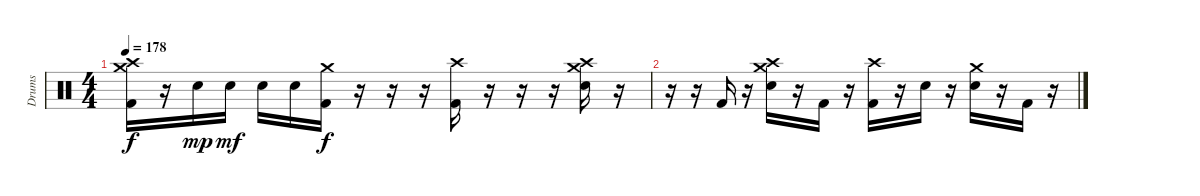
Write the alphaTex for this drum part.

\track ("Drums" "Drums") {instrument percussion}
\staff {score}
\articulation defaults
\ts (4 4)
\tempo 178
\clef neutral
\ks c
("Crash high (hit)" "Crash medium (hit)" "Kick (hit) 2").16{dy f} r.16 "Electric Snare (hit)".16{dy mp} "Electric Snare (hit)".16{dy mf} "Electric Snare (hit)".16 "Electric Snare (hit)".16 ("Crash medium (hit)" "Kick (hit) 2").16{dy f} r.16 r.16 r.16 ("Crash high (hit)" "Kick (hit) 2").16 r.16 r.16 r.16 ("Crash high (hit)" "Crash medium (hit)" "Electric Snare (hit)").16 r.16 |
r.16 r.16 "Kick (hit) 2".16 r.16 ("Crash high (hit)" "Crash medium (hit)" "Electric Snare (hit)").16 r.16 "Kick (hit) 2".16 r.16 ("Crash high (hit)" "Kick (hit) 2").16 r.16 "Electric Snare (hit)".16 r.16 ("Crash medium (hit)" "Electric Snare (hit)").16 r.16 "Kick (hit) 2".16 r.16
